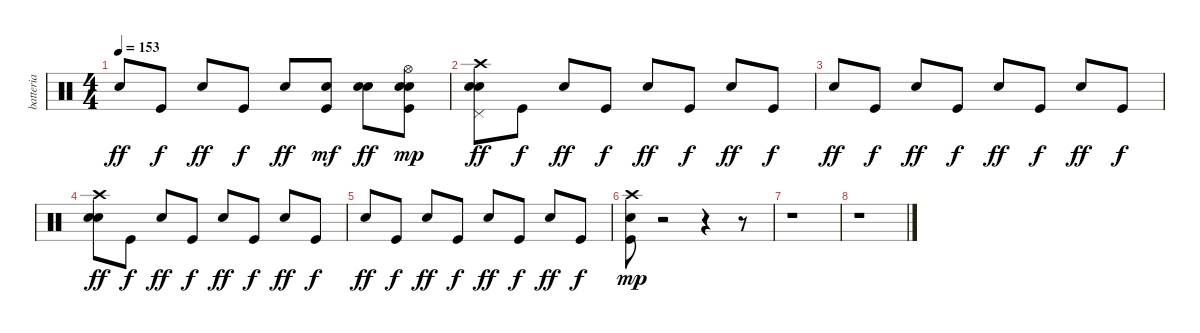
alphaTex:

\track ("batteria" "batteria") {instrument percussion}
\staff {score}
\articulation defaults
\ts (4 4)
\tempo 153
\clef neutral
\ks c "Electric Snare (hit)".8{dy ff} "Kick (hit)".8{dy f} "Electric Snare (hit)".8{dy ff} "Kick (hit)".8{dy f} "Electric Snare (hit)".8{dy ff}
("Kick (hit)" "Electric Snare (hit)").8{dy mf} ("Electric Snare (hit)" "Electric Snare (hit)").8{dy ff} ("Electric Snare (hit)" "Kick (hit)" "Hi-Hat (open)" "Electric Snare (hit)").8{dy mp} |
("Electric Snare (hit)" "Pedal Hi-Hat (hit)" "Crash high (hit)" "Electric Snare (hit)").8{dy ff} "Kick (hit)".8{dy f} "Electric Snare (hit)".8{dy ff} "Kick (hit)".8{dy f} "Electric Snare (hit)".8{dy ff} "Kick (hit)".8{dy f} "Electric Snare (hit)".8{dy ff} "Kick (hit)".8{dy f} |
"Electric Snare (hit)".8{dy ff} "Kick (hit)".8{dy f} "Electric Snare (hit)".8{dy ff} "Kick (hit)".8{dy f} "Electric Snare (hit)".8{dy ff} "Kick (hit)".8{dy f} "Electric Snare (hit)".8{dy ff} "Kick (hit)".8{dy f} |
("Electric Snare (hit)" "Crash high (hit)" "Electric Snare (hit)").8{dy ff} "Kick (hit)".8{dy f} "Electric Snare (hit)".8{dy ff} "Kick (hit)".8{dy f} "Electric Snare (hit)".8{dy ff} "Kick (hit)".8{dy f} "Electric Snare (hit)".8{dy ff} "Kick (hit)".8{dy f} |
"Electric Snare (hit)".8{dy ff} "Kick (hit)".8{dy f} "Electric Snare (hit)".8{dy ff} "Kick (hit)".8{dy f} "Electric Snare (hit)".8{dy ff} "Kick (hit)".8{dy f} "Electric Snare (hit)".8{dy ff} "Kick (hit)".8{dy f} |
("Kick (hit)" "Crash high (hit)" "Electric Snare (hit)").8{dy mp} r.2 r.4 r.8 |
r.1 |
r.1
